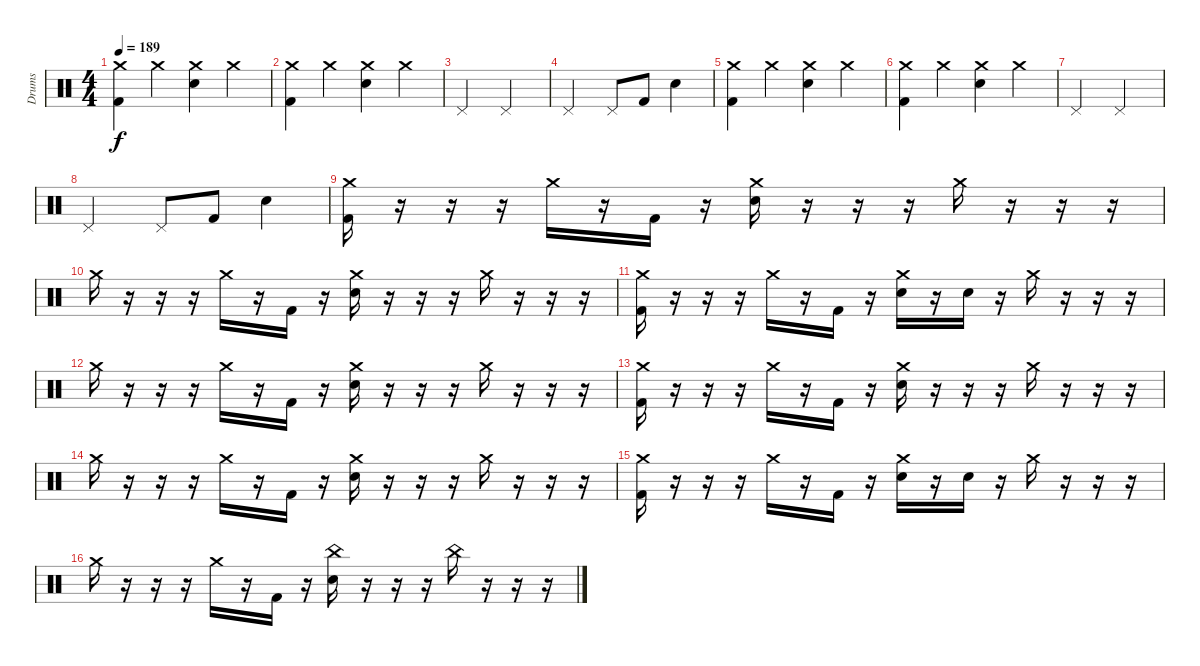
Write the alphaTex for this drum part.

\track ("Drums" "Drums") {instrument percussion}
\staff {score}
\articulation defaults
\ts (4 4)
\tempo 189
\clef neutral
\ks c
("Crash medium (hit)" "Kick (hit) 2").4{dy f} "Crash medium (hit)".4 ("Crash medium (hit)" "Snare (hit) 2").4 "Crash medium (hit)".4 |
("Crash medium (hit)" "Kick (hit) 2").4 "Crash medium (hit)".4 ("Crash medium (hit)" "Snare (hit) 2").4 "Crash medium (hit)".4 |
"Pedal Hi-Hat (hit)".2 "Pedal Hi-Hat (hit)".2 |
"Pedal Hi-Hat (hit)".2 "Pedal Hi-Hat (hit)".8 "Kick (hit) 2".8 "Snare (hit) 2".4 |
("Crash medium (hit)" "Kick (hit) 2").4 "Crash medium (hit)".4 ("Crash medium (hit)" "Snare (hit) 2").4 "Crash medium (hit)".4 |
("Crash medium (hit)" "Kick (hit) 2").4 "Crash medium (hit)".4 ("Crash medium (hit)" "Snare (hit) 2").4 "Crash medium (hit)".4 |
"Pedal Hi-Hat (hit)".2 "Pedal Hi-Hat (hit)".2 |
"Pedal Hi-Hat (hit)".2 "Pedal Hi-Hat (hit)".8 "Kick (hit) 2".8 "Snare (hit) 2".4 |
("Crash medium (hit)" "Kick (hit) 2").16 r.16 r.16 r.16 "Crash medium (hit)".16 r.16 "Kick (hit) 2".16 r.16 ("Crash medium (hit)" "Electric Snare (hit)").16 r.16 r.16 r.16 "Crash medium (hit)".16 r.16 r.16 r.16 |
"Crash medium (hit)".16 r.16 r.16 r.16 "Crash medium (hit)".16 r.16 "Kick (hit) 2".16 r.16 ("Crash medium (hit)" "Electric Snare (hit)").16 r.16 r.16 r.16 "Crash medium (hit)".16 r.16 r.16 r.16 |
("Crash medium (hit)" "Kick (hit) 2").16 r.16 r.16 r.16 "Crash medium (hit)".16 r.16 "Kick (hit) 2".16 r.16 ("Crash medium (hit)" "Electric Snare (hit)").16 r.16 "Electric Snare (hit)".16 r.16 "Crash medium (hit)".16 r.16 r.16 r.16 |
"Crash medium (hit)".16 r.16 r.16 r.16 "Crash medium (hit)".16 r.16 "Kick (hit) 2".16 r.16 ("Crash medium (hit)" "Electric Snare (hit)").16 r.16 r.16 r.16 "Crash medium (hit)".16 r.16 r.16 r.16 |
("Crash medium (hit)" "Kick (hit) 2").16 r.16 r.16 r.16 "Crash medium (hit)".16 r.16 "Kick (hit) 2".16 r.16 ("Crash medium (hit)" "Electric Snare (hit)").16 r.16 r.16 r.16 "Crash medium (hit)".16 r.16 r.16 r.16 |
"Crash medium (hit)".16 r.16 r.16 r.16 "Crash medium (hit)".16 r.16 "Kick (hit) 2".16 r.16 ("Crash medium (hit)" "Electric Snare (hit)").16 r.16 r.16 r.16 "Crash medium (hit)".16 r.16 r.16 r.16 |
("Crash medium (hit)" "Kick (hit) 2").16 r.16 r.16 r.16 "Crash medium (hit)".16 r.16 "Kick (hit) 2".16 r.16 ("Crash medium (hit)" "Electric Snare (hit)").16 r.16 "Electric Snare (hit)".16 r.16 "Crash medium (hit)".16 r.16 r.16 r.16 |
"Crash medium (hit)".16 r.16 r.16 r.16 "Crash medium (hit)".16 r.16 "Kick (hit) 2".16 r.16 ("China (hit)" "Electric Snare (hit)").16 r.16 r.16 r.16 "China (hit)".16 r.16 r.16 r.16
